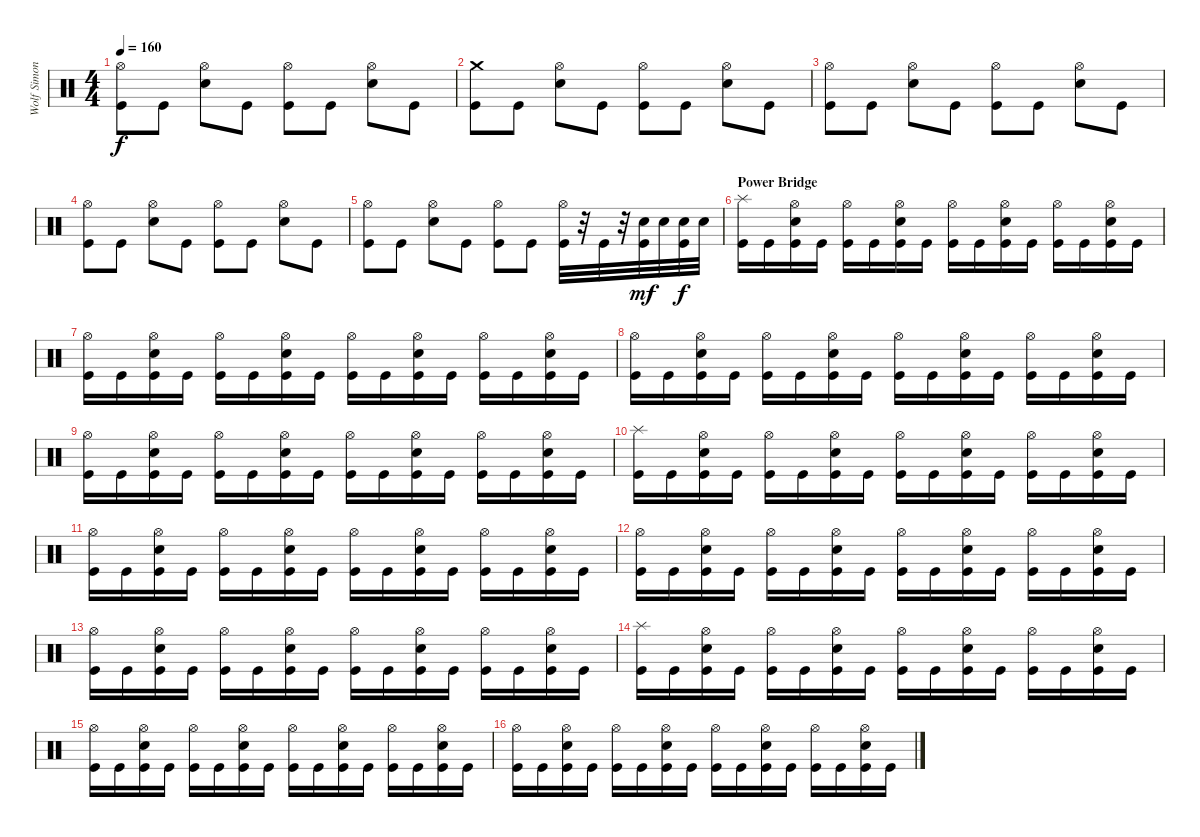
\track ("Wolf Simons" "Wolf Simon") {instrument percussion}
\staff {score}
\articulation defaults
\ts (4 4)
\tempo 160
\clef neutral
\ks c
("Hi-Hat (open)" "Kick (hit)").8{dy f} "Kick (hit)".8 ("Hi-Hat (open)" "Electric Snare (hit)").8 "Kick (hit)".8 ("Hi-Hat (open)" "Kick (hit)").8 "Kick (hit)".8 ("Hi-Hat (open)" "Electric Snare (hit)").8 "Kick (hit)".8 |
("Crash medium (hit)" "Kick (hit)").8 "Kick (hit)".8 ("Hi-Hat (open)" "Electric Snare (hit)").8 "Kick (hit)".8 ("Hi-Hat (open)" "Kick (hit)").8 "Kick (hit)".8 ("Hi-Hat (open)" "Electric Snare (hit)").8 "Kick (hit)".8 |
("Hi-Hat (open)" "Kick (hit)").8 "Kick (hit)".8 ("Hi-Hat (open)" "Electric Snare (hit)").8 "Kick (hit)".8 ("Hi-Hat (open)" "Kick (hit)").8 "Kick (hit)".8 ("Hi-Hat (open)" "Electric Snare (hit)").8 "Kick (hit)".8 |
("Hi-Hat (open)" "Kick (hit)").8 "Kick (hit)".8 ("Hi-Hat (open)" "Electric Snare (hit)").8 "Kick (hit)".8 ("Hi-Hat (open)" "Kick (hit)").8 "Kick (hit)".8 ("Hi-Hat (open)" "Electric Snare (hit)").8 "Kick (hit)".8 |
("Hi-Hat (open)" "Kick (hit)").8 "Kick (hit)".8 ("Hi-Hat (open)" "Electric Snare (hit)").8 "Kick (hit)".8 ("Hi-Hat (open)" "Kick (hit)").8 "Kick (hit)".8 ("Hi-Hat (open)" "Kick (hit)").32 r.32 "Kick (hit)".32 r.32 ("Electric Snare (hit)" "Kick (hit)").32{dy mf} "Electric Snare (hit)".32 ("Electric Snare (hit)" "Kick (hit)").32{dy f} "Electric Snare (hit)".32 |
\section ("" "Power Bridge")
("Splash (hit)" "Kick (hit)").16 "Kick (hit)".16 ("Hi-Hat (open)" "Electric Snare (hit)" "Kick (hit)").16 "Kick (hit)".16 ("Hi-Hat (open)" "Kick (hit)").16 "Kick (hit)".16 ("Hi-Hat (open)" "Electric Snare (hit)" "Kick (hit)").16 "Kick (hit)".16 ("Hi-Hat (open)" "Kick (hit)").16 "Kick (hit)".16 ("Hi-Hat (open)" "Electric Snare (hit)" "Kick (hit)").16 "Kick (hit)".16 ("Hi-Hat (open)" "Kick (hit)").16 "Kick (hit)".16 ("Hi-Hat (open)" "Electric Snare (hit)" "Kick (hit)").16 "Kick (hit)".16 |
("Hi-Hat (open)" "Kick (hit)").16 "Kick (hit)".16 ("Hi-Hat (open)" "Electric Snare (hit)" "Kick (hit)").16 "Kick (hit)".16 ("Hi-Hat (open)" "Kick (hit)").16 "Kick (hit)".16 ("Hi-Hat (open)" "Electric Snare (hit)" "Kick (hit)").16 "Kick (hit)".16 ("Hi-Hat (open)" "Kick (hit)").16 "Kick (hit)".16 ("Hi-Hat (open)" "Electric Snare (hit)" "Kick (hit)").16 "Kick (hit)".16 ("Hi-Hat (open)" "Kick (hit)").16 "Kick (hit)".16 ("Hi-Hat (open)" "Electric Snare (hit)" "Kick (hit)").16 "Kick (hit)".16 |
("Hi-Hat (open)" "Kick (hit)").16 "Kick (hit)".16 ("Hi-Hat (open)" "Electric Snare (hit)" "Kick (hit)").16 "Kick (hit)".16 ("Hi-Hat (open)" "Kick (hit)").16 "Kick (hit)".16 ("Hi-Hat (open)" "Electric Snare (hit)" "Kick (hit)").16 "Kick (hit)".16 ("Hi-Hat (open)" "Kick (hit)").16 "Kick (hit)".16 ("Hi-Hat (open)" "Electric Snare (hit)" "Kick (hit)").16 "Kick (hit)".16 ("Hi-Hat (open)" "Kick (hit)").16 "Kick (hit)".16 ("Hi-Hat (open)" "Electric Snare (hit)" "Kick (hit)").16 "Kick (hit)".16 |
("Hi-Hat (open)" "Kick (hit)").16 "Kick (hit)".16 ("Hi-Hat (open)" "Electric Snare (hit)" "Kick (hit)").16 "Kick (hit)".16 ("Hi-Hat (open)" "Kick (hit)").16 "Kick (hit)".16 ("Hi-Hat (open)" "Electric Snare (hit)" "Kick (hit)").16 "Kick (hit)".16 ("Hi-Hat (open)" "Kick (hit)").16 "Kick (hit)".16 ("Hi-Hat (open)" "Electric Snare (hit)" "Kick (hit)").16 "Kick (hit)".16 ("Hi-Hat (open)" "Kick (hit)").16 "Kick (hit)".16 ("Hi-Hat (open)" "Electric Snare (hit)" "Kick (hit)").16 "Kick (hit)".16 |
("Splash (hit)" "Kick (hit)").16 "Kick (hit)".16 ("Hi-Hat (open)" "Electric Snare (hit)" "Kick (hit)").16 "Kick (hit)".16 ("Hi-Hat (open)" "Kick (hit)").16 "Kick (hit)".16 ("Hi-Hat (open)" "Electric Snare (hit)" "Kick (hit)").16 "Kick (hit)".16 ("Hi-Hat (open)" "Kick (hit)").16 "Kick (hit)".16 ("Hi-Hat (open)" "Electric Snare (hit)" "Kick (hit)").16 "Kick (hit)".16 ("Hi-Hat (open)" "Kick (hit)").16 "Kick (hit)".16 ("Hi-Hat (open)" "Electric Snare (hit)" "Kick (hit)").16 "Kick (hit)".16 |
("Hi-Hat (open)" "Kick (hit)").16 "Kick (hit)".16 ("Hi-Hat (open)" "Electric Snare (hit)" "Kick (hit)").16 "Kick (hit)".16 ("Hi-Hat (open)" "Kick (hit)").16 "Kick (hit)".16 ("Hi-Hat (open)" "Electric Snare (hit)" "Kick (hit)").16 "Kick (hit)".16 ("Hi-Hat (open)" "Kick (hit)").16 "Kick (hit)".16 ("Hi-Hat (open)" "Electric Snare (hit)" "Kick (hit)").16 "Kick (hit)".16 ("Hi-Hat (open)" "Kick (hit)").16 "Kick (hit)".16 ("Hi-Hat (open)" "Electric Snare (hit)" "Kick (hit)").16 "Kick (hit)".16 |
("Hi-Hat (open)" "Kick (hit)").16 "Kick (hit)".16 ("Hi-Hat (open)" "Electric Snare (hit)" "Kick (hit)").16 "Kick (hit)".16 ("Hi-Hat (open)" "Kick (hit)").16 "Kick (hit)".16 ("Hi-Hat (open)" "Electric Snare (hit)" "Kick (hit)").16 "Kick (hit)".16 ("Hi-Hat (open)" "Kick (hit)").16 "Kick (hit)".16 ("Hi-Hat (open)" "Electric Snare (hit)" "Kick (hit)").16 "Kick (hit)".16 ("Hi-Hat (open)" "Kick (hit)").16 "Kick (hit)".16 ("Hi-Hat (open)" "Electric Snare (hit)" "Kick (hit)").16 "Kick (hit)".16 |
("Hi-Hat (open)" "Kick (hit)").16 "Kick (hit)".16 ("Hi-Hat (open)" "Electric Snare (hit)" "Kick (hit)").16 "Kick (hit)".16 ("Hi-Hat (open)" "Kick (hit)").16 "Kick (hit)".16 ("Hi-Hat (open)" "Electric Snare (hit)" "Kick (hit)").16 "Kick (hit)".16 ("Hi-Hat (open)" "Kick (hit)").16 "Kick (hit)".16 ("Hi-Hat (open)" "Electric Snare (hit)" "Kick (hit)").16 "Kick (hit)".16 ("Hi-Hat (open)" "Kick (hit)").16 "Kick (hit)".16 ("Hi-Hat (open)" "Electric Snare (hit)" "Kick (hit)").16 "Kick (hit)".16 |
("Splash (hit)" "Kick (hit)").16 "Kick (hit)".16 ("Hi-Hat (open)" "Electric Snare (hit)" "Kick (hit)").16 "Kick (hit)".16 ("Hi-Hat (open)" "Kick (hit)").16 "Kick (hit)".16 ("Hi-Hat (open)" "Electric Snare (hit)" "Kick (hit)").16 "Kick (hit)".16 ("Hi-Hat (open)" "Kick (hit)").16 "Kick (hit)".16 ("Hi-Hat (open)" "Electric Snare (hit)" "Kick (hit)").16 "Kick (hit)".16 ("Hi-Hat (open)" "Kick (hit)").16 "Kick (hit)".16 ("Hi-Hat (open)" "Electric Snare (hit)" "Kick (hit)").16 "Kick (hit)".16 |
("Hi-Hat (open)" "Kick (hit)").16 "Kick (hit)".16 ("Hi-Hat (open)" "Electric Snare (hit)" "Kick (hit)").16 "Kick (hit)".16 ("Hi-Hat (open)" "Kick (hit)").16 "Kick (hit)".16 ("Hi-Hat (open)" "Electric Snare (hit)" "Kick (hit)").16 "Kick (hit)".16 ("Hi-Hat (open)" "Kick (hit)").16 "Kick (hit)".16 ("Hi-Hat (open)" "Electric Snare (hit)" "Kick (hit)").16 "Kick (hit)".16 ("Hi-Hat (open)" "Kick (hit)").16 "Kick (hit)".16 ("Hi-Hat (open)" "Electric Snare (hit)" "Kick (hit)").16 "Kick (hit)".16 |
("Hi-Hat (open)" "Kick (hit)").16 "Kick (hit)".16 ("Hi-Hat (open)" "Electric Snare (hit)" "Kick (hit)").16 "Kick (hit)".16 ("Hi-Hat (open)" "Kick (hit)").16 "Kick (hit)".16 ("Hi-Hat (open)" "Electric Snare (hit)" "Kick (hit)").16 "Kick (hit)".16 ("Hi-Hat (open)" "Kick (hit)").16 "Kick (hit)".16 ("Hi-Hat (open)" "Electric Snare (hit)" "Kick (hit)").16 "Kick (hit)".16 ("Hi-Hat (open)" "Kick (hit)").16 "Kick (hit)".16 ("Hi-Hat (open)" "Electric Snare (hit)" "Kick (hit)").16 "Kick (hit)".16
